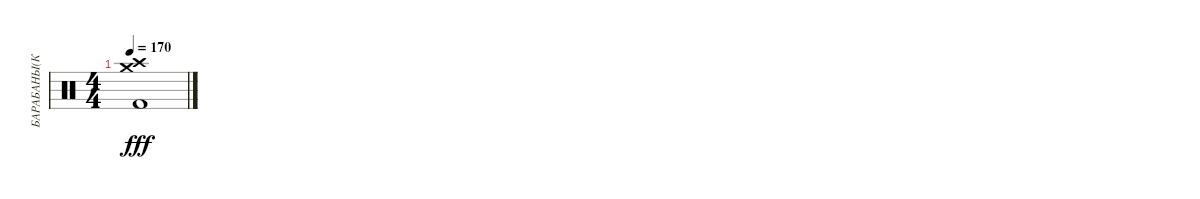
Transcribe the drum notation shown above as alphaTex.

\track ("БАРАБАНЫ(КАРДАН)" "БАРАБАНЫ(К") {instrument percussion}
\staff {score}
\articulation defaults
\ts (4 4)
\tempo 170
\clef neutral
\ks c
("Kick (hit) 2" "Crash medium (hit)" "Crash high (hit)").1{dy fff}
